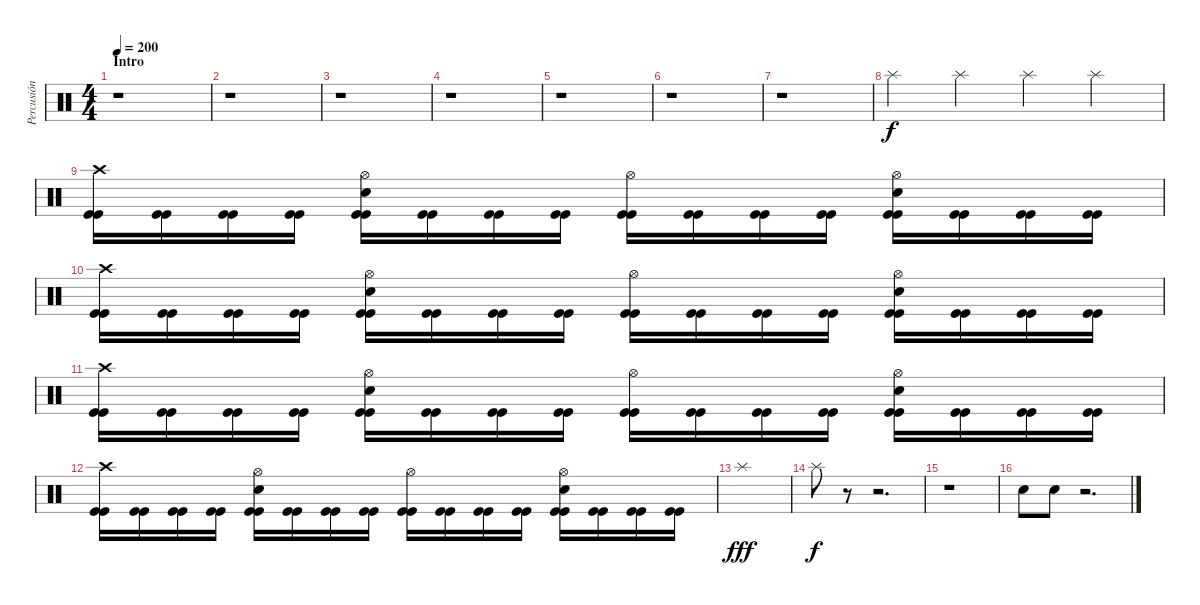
\track ("Percusión" "Percusión") {instrument percussion}
\staff {score}
\articulation defaults
\ts (4 4)
\section ("" "Intro")
\tempo 200
\clef neutral
\ks c
r.1{dy f} |
r.1 |
r.1 |
r.1 |
r.1 |
r.1 |
r.1 |
"Splash (hit)".4 "Splash (hit)".4 "Splash (hit)".4 "Splash (hit)".4 |
("Kick (hit)" "Kick (hit)" "Crash high (hit)").16 ("Kick (hit)" "Kick (hit)").16 ("Kick (hit)" "Kick (hit)").16 ("Kick (hit)" "Kick (hit)").16 ("Kick (hit)" "Kick (hit)" "Snare (hit) 2" "Hi-Hat (open)").16 ("Kick (hit)" "Kick (hit)").16 ("Kick (hit)" "Kick (hit)").16 ("Kick (hit)" "Kick (hit)").16 ("Kick (hit)" "Kick (hit)" "Hi-Hat (open)").16 ("Kick (hit)" "Kick (hit)").16 ("Kick (hit)" "Kick (hit)").16 ("Kick (hit)" "Kick (hit)").16 ("Kick (hit)" "Kick (hit)" "Snare (hit) 2" "Hi-Hat (open)").16 ("Kick (hit)" "Kick (hit)").16 ("Kick (hit)" "Kick (hit)").16 ("Kick (hit)" "Kick (hit)").16 |
("Kick (hit)" "Kick (hit)" "Crash high (hit)").16 ("Kick (hit)" "Kick (hit)").16 ("Kick (hit)" "Kick (hit)").16 ("Kick (hit)" "Kick (hit)").16 ("Kick (hit)" "Kick (hit)" "Snare (hit) 2" "Hi-Hat (open)").16 ("Kick (hit)" "Kick (hit)").16 ("Kick (hit)" "Kick (hit)").16 ("Kick (hit)" "Kick (hit)").16 ("Kick (hit)" "Kick (hit)" "Hi-Hat (open)").16 ("Kick (hit)" "Kick (hit)").16 ("Kick (hit)" "Kick (hit)").16 ("Kick (hit)" "Kick (hit)").16 ("Kick (hit)" "Kick (hit)" "Snare (hit) 2" "Hi-Hat (open)").16 ("Kick (hit)" "Kick (hit)").16 ("Kick (hit)" "Kick (hit)").16 ("Kick (hit)" "Kick (hit)").16 |
("Kick (hit)" "Kick (hit)" "Crash high (hit)").16 ("Kick (hit)" "Kick (hit)").16 ("Kick (hit)" "Kick (hit)").16 ("Kick (hit)" "Kick (hit)").16 ("Kick (hit)" "Kick (hit)" "Snare (hit) 2" "Hi-Hat (open)").16 ("Kick (hit)" "Kick (hit)").16 ("Kick (hit)" "Kick (hit)").16 ("Kick (hit)" "Kick (hit)").16 ("Kick (hit)" "Kick (hit)" "Hi-Hat (open)").16 ("Kick (hit)" "Kick (hit)").16 ("Kick (hit)" "Kick (hit)").16 ("Kick (hit)" "Kick (hit)").16 ("Kick (hit)" "Kick (hit)" "Snare (hit) 2" "Hi-Hat (open)").16 ("Kick (hit)" "Kick (hit)").16 ("Kick (hit)" "Kick (hit)").16 ("Kick (hit)" "Kick (hit)").16 |
("Kick (hit)" "Kick (hit)" "Crash high (hit)").16 ("Kick (hit)" "Kick (hit)").16 ("Kick (hit)" "Kick (hit)").16 ("Kick (hit)" "Kick (hit)").16 ("Kick (hit)" "Kick (hit)" "Snare (hit) 2" "Hi-Hat (open)").16 ("Kick (hit)" "Kick (hit)").16 ("Kick (hit)" "Kick (hit)").16 ("Kick (hit)" "Kick (hit)").16 ("Kick (hit)" "Kick (hit)" "Hi-Hat (open)").16 ("Kick (hit)" "Kick (hit)").16 ("Kick (hit)" "Kick (hit)").16 ("Kick (hit)" "Kick (hit)").16 ("Kick (hit)" "Kick (hit)" "Snare (hit) 2" "Hi-Hat (open)").16 ("Kick (hit)" "Kick (hit)").16 ("Kick (hit)" "Kick (hit)").16 ("Kick (hit)" "Kick (hit)").16 |
"Splash (hit)".1{dy fff} |
"Splash (hit)".8{dy f} r.8 r.2{d} |
r.1 |
"Snare (hit) 2".8 "Snare (hit) 2".8 r.2{d}
